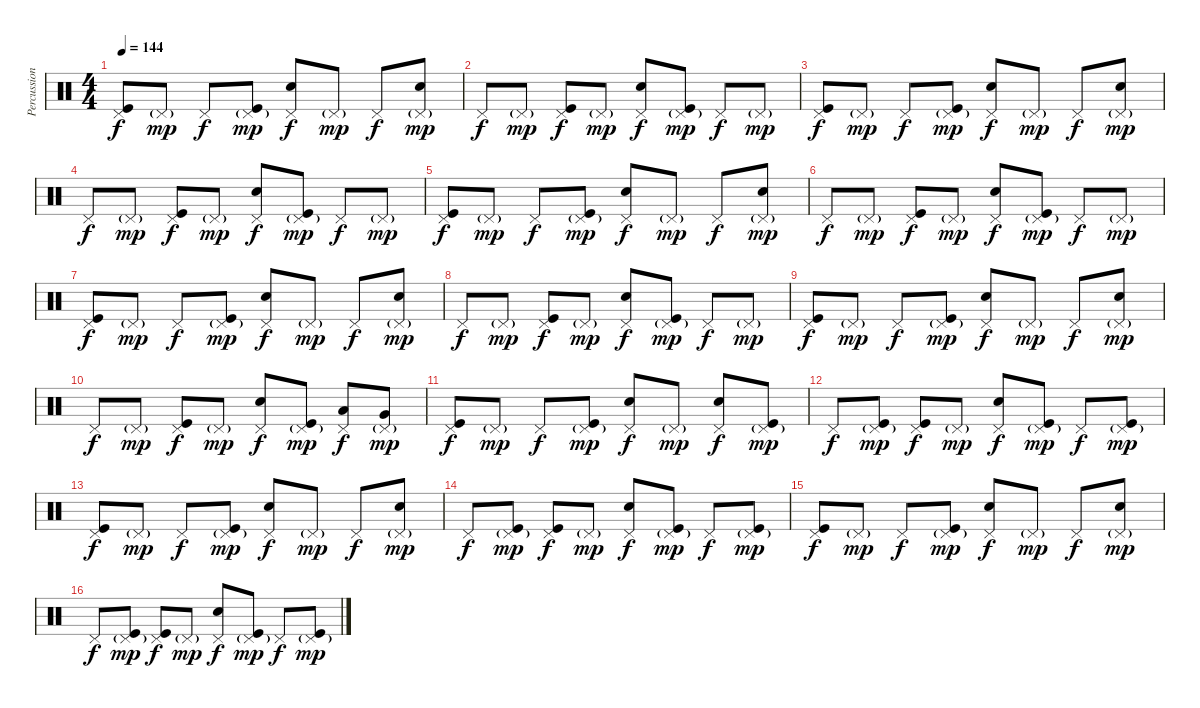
\track ("Percussion" "Percussion") {instrument percussion}
\staff {score}
\articulation defaults
\ts (4 4)
\tempo 144
\clef neutral
\ks c
("Pedal Hi-Hat (hit)" "Kick (hit)").8{dy f} "Pedal Hi-Hat (hit)"{g}.8{dy mp} "Pedal Hi-Hat (hit)".8{dy f} ("Pedal Hi-Hat (hit)"{g} "Kick (hit)").8{dy mp} ("Pedal Hi-Hat (hit)" "Snare (hit) 2").8{dy f} "Pedal Hi-Hat (hit)"{g}.8{dy mp} "Pedal Hi-Hat (hit)".8{dy f} ("Pedal Hi-Hat (hit)"{g} "Snare (hit) 2").8{dy mp} |
"Pedal Hi-Hat (hit)".8{dy f} "Pedal Hi-Hat (hit)"{g}.8{dy mp} ("Pedal Hi-Hat (hit)" "Kick (hit)").8{dy f} "Pedal Hi-Hat (hit)"{g}.8{dy mp} ("Pedal Hi-Hat (hit)" "Snare (hit) 2").8{dy f} ("Pedal Hi-Hat (hit)"{g} "Kick (hit)").8{dy mp} "Pedal Hi-Hat (hit)".8{dy f} "Pedal Hi-Hat (hit)"{g}.8{dy mp} |
("Pedal Hi-Hat (hit)" "Kick (hit)").8{dy f} "Pedal Hi-Hat (hit)"{g}.8{dy mp} "Pedal Hi-Hat (hit)".8{dy f} ("Pedal Hi-Hat (hit)"{g} "Kick (hit)").8{dy mp} ("Pedal Hi-Hat (hit)" "Snare (hit) 2").8{dy f} "Pedal Hi-Hat (hit)"{g}.8{dy mp} "Pedal Hi-Hat (hit)".8{dy f} ("Pedal Hi-Hat (hit)"{g} "Snare (hit) 2").8{dy mp} |
"Pedal Hi-Hat (hit)".8{dy f} "Pedal Hi-Hat (hit)"{g}.8{dy mp} ("Pedal Hi-Hat (hit)" "Kick (hit)").8{dy f} "Pedal Hi-Hat (hit)"{g}.8{dy mp} ("Pedal Hi-Hat (hit)" "Snare (hit) 2").8{dy f} ("Pedal Hi-Hat (hit)"{g} "Kick (hit)").8{dy mp} "Pedal Hi-Hat (hit)".8{dy f} "Pedal Hi-Hat (hit)"{g}.8{dy mp} |
("Pedal Hi-Hat (hit)" "Kick (hit)").8{dy f} "Pedal Hi-Hat (hit)"{g}.8{dy mp} "Pedal Hi-Hat (hit)".8{dy f} ("Pedal Hi-Hat (hit)"{g} "Kick (hit)").8{dy mp} ("Pedal Hi-Hat (hit)" "Snare (hit) 2").8{dy f} "Pedal Hi-Hat (hit)"{g}.8{dy mp} "Pedal Hi-Hat (hit)".8{dy f} ("Pedal Hi-Hat (hit)"{g} "Snare (hit) 2").8{dy mp} |
"Pedal Hi-Hat (hit)".8{dy f} "Pedal Hi-Hat (hit)"{g}.8{dy mp} ("Pedal Hi-Hat (hit)" "Kick (hit)").8{dy f} "Pedal Hi-Hat (hit)"{g}.8{dy mp} ("Pedal Hi-Hat (hit)" "Snare (hit) 2").8{dy f} ("Pedal Hi-Hat (hit)"{g} "Kick (hit)").8{dy mp} "Pedal Hi-Hat (hit)".8{dy f} "Pedal Hi-Hat (hit)"{g}.8{dy mp} |
("Pedal Hi-Hat (hit)" "Kick (hit)").8{dy f} "Pedal Hi-Hat (hit)"{g}.8{dy mp} "Pedal Hi-Hat (hit)".8{dy f} ("Pedal Hi-Hat (hit)"{g} "Kick (hit)").8{dy mp} ("Pedal Hi-Hat (hit)" "Snare (hit) 2").8{dy f} "Pedal Hi-Hat (hit)"{g}.8{dy mp} "Pedal Hi-Hat (hit)".8{dy f} ("Pedal Hi-Hat (hit)"{g} "Snare (hit) 2").8{dy mp} |
"Pedal Hi-Hat (hit)".8{dy f} "Pedal Hi-Hat (hit)"{g}.8{dy mp} ("Pedal Hi-Hat (hit)" "Kick (hit)").8{dy f} "Pedal Hi-Hat (hit)"{g}.8{dy mp} ("Pedal Hi-Hat (hit)" "Snare (hit) 2").8{dy f} ("Pedal Hi-Hat (hit)"{g} "Kick (hit)").8{dy mp} "Pedal Hi-Hat (hit)".8{dy f} "Pedal Hi-Hat (hit)"{g}.8{dy mp} |
("Pedal Hi-Hat (hit)" "Kick (hit)").8{dy f} "Pedal Hi-Hat (hit)"{g}.8{dy mp} "Pedal Hi-Hat (hit)".8{dy f} ("Pedal Hi-Hat (hit)"{g} "Kick (hit)").8{dy mp} ("Pedal Hi-Hat (hit)" "Snare (hit) 2").8{dy f} "Pedal Hi-Hat (hit)"{g}.8{dy mp} "Pedal Hi-Hat (hit)".8{dy f} ("Pedal Hi-Hat (hit)"{g} "Snare (hit) 2").8{dy mp} |
"Pedal Hi-Hat (hit)".8{dy f} "Pedal Hi-Hat (hit)"{g}.8{dy mp} ("Pedal Hi-Hat (hit)" "Kick (hit)").8{dy f} "Pedal Hi-Hat (hit)"{g}.8{dy mp} ("Pedal Hi-Hat (hit)" "Snare (hit) 2").8{dy f} ("Pedal Hi-Hat (hit)"{g} "Kick (hit)").8{dy mp} ("Pedal Hi-Hat (hit)" "Low Tom (hit)").8{dy f} ("Pedal Hi-Hat (hit)"{g} "Very Low Tom (hit)").8{dy mp} |
("Pedal Hi-Hat (hit)" "Kick (hit)").8{dy f} "Pedal Hi-Hat (hit)"{g}.8{dy mp} "Pedal Hi-Hat (hit)".8{dy f} ("Pedal Hi-Hat (hit)"{g} "Kick (hit)").8{dy mp} ("Pedal Hi-Hat (hit)" "Snare (hit) 2").8{dy f} "Pedal Hi-Hat (hit)"{g}.8{dy mp} ("Pedal Hi-Hat (hit)" "Snare (hit) 2").8{dy f} ("Pedal Hi-Hat (hit)"{g} "Kick (hit)").8{dy mp} |
"Pedal Hi-Hat (hit)".8{dy f} ("Pedal Hi-Hat (hit)"{g} "Kick (hit)").8{dy mp} ("Pedal Hi-Hat (hit)" "Kick (hit)").8{dy f} "Pedal Hi-Hat (hit)"{g}.8{dy mp} ("Pedal Hi-Hat (hit)" "Snare (hit) 2").8{dy f} ("Pedal Hi-Hat (hit)"{g} "Kick (hit)").8{dy mp} "Pedal Hi-Hat (hit)".8{dy f} ("Pedal Hi-Hat (hit)"{g} "Kick (hit)").8{dy mp} |
("Pedal Hi-Hat (hit)" "Kick (hit)").8{dy f} "Pedal Hi-Hat (hit)"{g}.8{dy mp} "Pedal Hi-Hat (hit)".8{dy f} ("Pedal Hi-Hat (hit)"{g} "Kick (hit)").8{dy mp} ("Pedal Hi-Hat (hit)" "Snare (hit) 2").8{dy f} "Pedal Hi-Hat (hit)"{g}.8{dy mp} "Pedal Hi-Hat (hit)".8{dy f} ("Pedal Hi-Hat (hit)"{g} "Snare (hit) 2").8{dy mp} |
"Pedal Hi-Hat (hit)".8{dy f} ("Pedal Hi-Hat (hit)"{g} "Kick (hit)").8{dy mp} ("Pedal Hi-Hat (hit)" "Kick (hit)").8{dy f} "Pedal Hi-Hat (hit)"{g}.8{dy mp} ("Pedal Hi-Hat (hit)" "Snare (hit) 2").8{dy f} ("Pedal Hi-Hat (hit)"{g} "Kick (hit)").8{dy mp} "Pedal Hi-Hat (hit)".8{dy f} ("Pedal Hi-Hat (hit)"{g} "Kick (hit)").8{dy mp} |
("Pedal Hi-Hat (hit)" "Kick (hit)").8{dy f} "Pedal Hi-Hat (hit)"{g}.8{dy mp} "Pedal Hi-Hat (hit)".8{dy f} ("Pedal Hi-Hat (hit)"{g} "Kick (hit)").8{dy mp} ("Pedal Hi-Hat (hit)" "Snare (hit) 2").8{dy f} "Pedal Hi-Hat (hit)"{g}.8{dy mp} "Pedal Hi-Hat (hit)".8{dy f} ("Pedal Hi-Hat (hit)"{g} "Snare (hit) 2").8{dy mp} |
"Pedal Hi-Hat (hit)".8{dy f} ("Pedal Hi-Hat (hit)"{g} "Kick (hit)").8{dy mp} ("Pedal Hi-Hat (hit)" "Kick (hit)").8{dy f} "Pedal Hi-Hat (hit)"{g}.8{dy mp} ("Pedal Hi-Hat (hit)" "Snare (hit) 2").8{dy f} ("Pedal Hi-Hat (hit)"{g} "Kick (hit)").8{dy mp} "Pedal Hi-Hat (hit)".8{dy f} ("Pedal Hi-Hat (hit)"{g} "Kick (hit)").8{dy mp}
